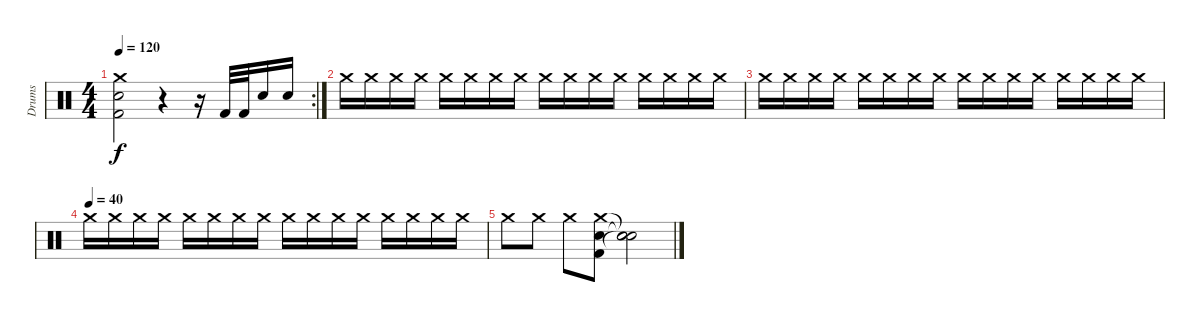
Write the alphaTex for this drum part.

\track ("Drums" "Drums") {instrument percussion}
\staff {score}
\articulation defaults
\rc 2
\ts (4 4)
\tempo 120
\clef neutral
\ks c
("Crash medium (hit)" "Snare (hit) 2" "Kick (hit) 2").2{dy f} r.4 r.16 "Kick (hit) 2".32 "Kick (hit) 2".32 "Snare (hit) 2".16 "Snare (hit) 2".16 |
"Crash medium (hit)".16{volume 7} "Crash medium (hit)".16 "Crash medium (hit)".16 "Crash medium (hit)".16 "Crash medium (hit)".16 "Crash medium (hit)".16 "Crash medium (hit)".16 "Crash medium (hit)".16 "Crash medium (hit)".16 "Crash medium (hit)".16 "Crash medium (hit)".16 "Crash medium (hit)".16 "Crash medium (hit)".16 "Crash medium (hit)".16 "Crash medium (hit)".16 "Crash medium (hit)".16 |
"Crash medium (hit)".16 "Crash medium (hit)".16 "Crash medium (hit)".16 "Crash medium (hit)".16 "Crash medium (hit)".16 "Crash medium (hit)".16 "Crash medium (hit)".16 "Crash medium (hit)".16 "Crash medium (hit)".16 "Crash medium (hit)".16 "Crash medium (hit)".16 "Crash medium (hit)".16 "Crash medium (hit)".16 "Crash medium (hit)".16 "Crash medium (hit)".16 "Crash medium (hit)".16 |
\tempo (40)
"Crash medium (hit)".16 "Crash medium (hit)".16 "Crash medium (hit)".16 "Crash medium (hit)".16 "Crash medium (hit)".16 "Crash medium (hit)".16 "Crash medium (hit)".16 "Crash medium (hit)".16 "Crash medium (hit)".16 "Crash medium (hit)".16 "Crash medium (hit)".16 "Crash medium (hit)".16 "Crash medium (hit)".16 "Crash medium (hit)".16 "Crash medium (hit)".16 "Crash medium (hit)".16 |
"Crash medium (hit)".8 "Crash medium (hit)".8 "Crash medium (hit)".8 ("Crash medium (hit)" "Snare (hit) 2" "Kick (hit) 2").8 ("Snare (hit)"{t} "Snare (hit)"{t} "Snare (hit)"{t}).2
